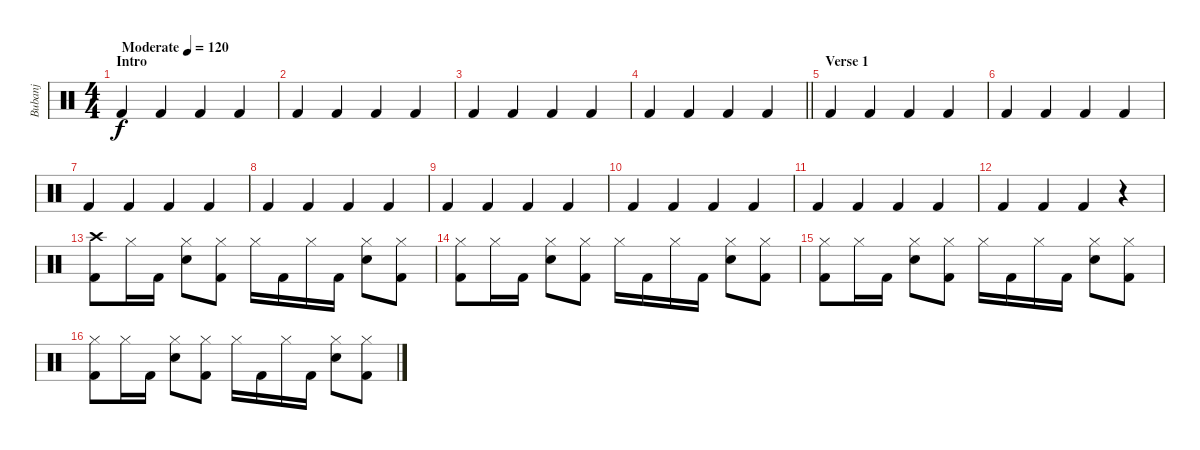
\track ("Bubanj" "Bubanj") {instrument percussion}
\staff {score}
\articulation defaults
\ts (4 4)
\section ("" "Intro")
\tempo (120 "Moderate")
\clef neutral
\ks c "Kick (hit) 2".4{dy f} "Kick (hit) 2".4 "Kick (hit) 2".4 "Kick (hit) 2".4
|
"Kick (hit) 2".4 "Kick (hit) 2".4 "Kick (hit) 2".4 "Kick (hit) 2".4 |
"Kick (hit) 2".4 "Kick (hit) 2".4 "Kick (hit) 2".4 "Kick (hit) 2".4 |
\barLineRight lightlight "Kick (hit) 2".4 "Kick (hit) 2".4 "Kick (hit) 2".4 "Kick (hit) 2".4
|
\section ("" "Verse 1")
"Kick (hit) 2".4 "Kick (hit) 2".4 "Kick (hit) 2".4 "Kick (hit) 2".4 |
"Kick (hit) 2".4 "Kick (hit) 2".4 "Kick (hit) 2".4 "Kick (hit) 2".4 |
"Kick (hit) 2".4 "Kick (hit) 2".4 "Kick (hit) 2".4 "Kick (hit) 2".4 |
"Kick (hit) 2".4 "Kick (hit) 2".4 "Kick (hit) 2".4 "Kick (hit) 2".4 |
"Kick (hit) 2".4 "Kick (hit) 2".4 "Kick (hit) 2".4 "Kick (hit) 2".4 |
"Kick (hit) 2".4 "Kick (hit) 2".4 "Kick (hit) 2".4 "Kick (hit) 2".4 |
"Kick (hit) 2".4 "Kick (hit) 2".4 "Kick (hit) 2".4 "Kick (hit) 2".4 |
"Kick (hit) 2".4 "Kick (hit) 2".4 "Kick (hit) 2".4 r.4 |
("Crash high (hit)" "Kick (hit) 2").8 "Hi-Hat (closed)".16 "Kick (hit) 2".16 ("Hi-Hat (closed)" "Electric Snare (hit)").8 ("Hi-Hat (closed)" "Kick (hit) 2").8 "Hi-Hat (closed)".16 "Kick (hit) 2".16 "Hi-Hat (closed)".16 "Kick (hit) 2".16 ("Hi-Hat (closed)" "Electric Snare (hit)").8 ("Hi-Hat (closed)" "Kick (hit) 2").8 |
("Hi-Hat (closed)" "Kick (hit) 2").8 "Hi-Hat (closed)".16 "Kick (hit) 2".16 ("Hi-Hat (closed)" "Electric Snare (hit)").8 ("Hi-Hat (closed)" "Kick (hit) 2").8 "Hi-Hat (closed)".16 "Kick (hit) 2".16 "Hi-Hat (closed)".16 "Kick (hit) 2".16 ("Hi-Hat (closed)" "Electric Snare (hit)").8 ("Hi-Hat (closed)" "Kick (hit) 2").8 |
("Hi-Hat (closed)" "Kick (hit) 2").8 "Hi-Hat (closed)".16 "Kick (hit) 2".16 ("Hi-Hat (closed)" "Electric Snare (hit)").8 ("Hi-Hat (closed)" "Kick (hit) 2").8 "Hi-Hat (closed)".16 "Kick (hit) 2".16 "Hi-Hat (closed)".16 "Kick (hit) 2".16 ("Hi-Hat (closed)" "Electric Snare (hit)").8 ("Hi-Hat (closed)" "Kick (hit) 2").8 |
("Hi-Hat (closed)" "Kick (hit) 2").8 "Hi-Hat (closed)".16 "Kick (hit) 2".16 ("Hi-Hat (closed)" "Electric Snare (hit)").8 ("Hi-Hat (closed)" "Kick (hit) 2").8 "Hi-Hat (closed)".16 "Kick (hit) 2".16 "Hi-Hat (closed)".16 "Kick (hit) 2".16 ("Hi-Hat (closed)" "Electric Snare (hit)").8 ("Hi-Hat (closed)" "Kick (hit) 2").8
